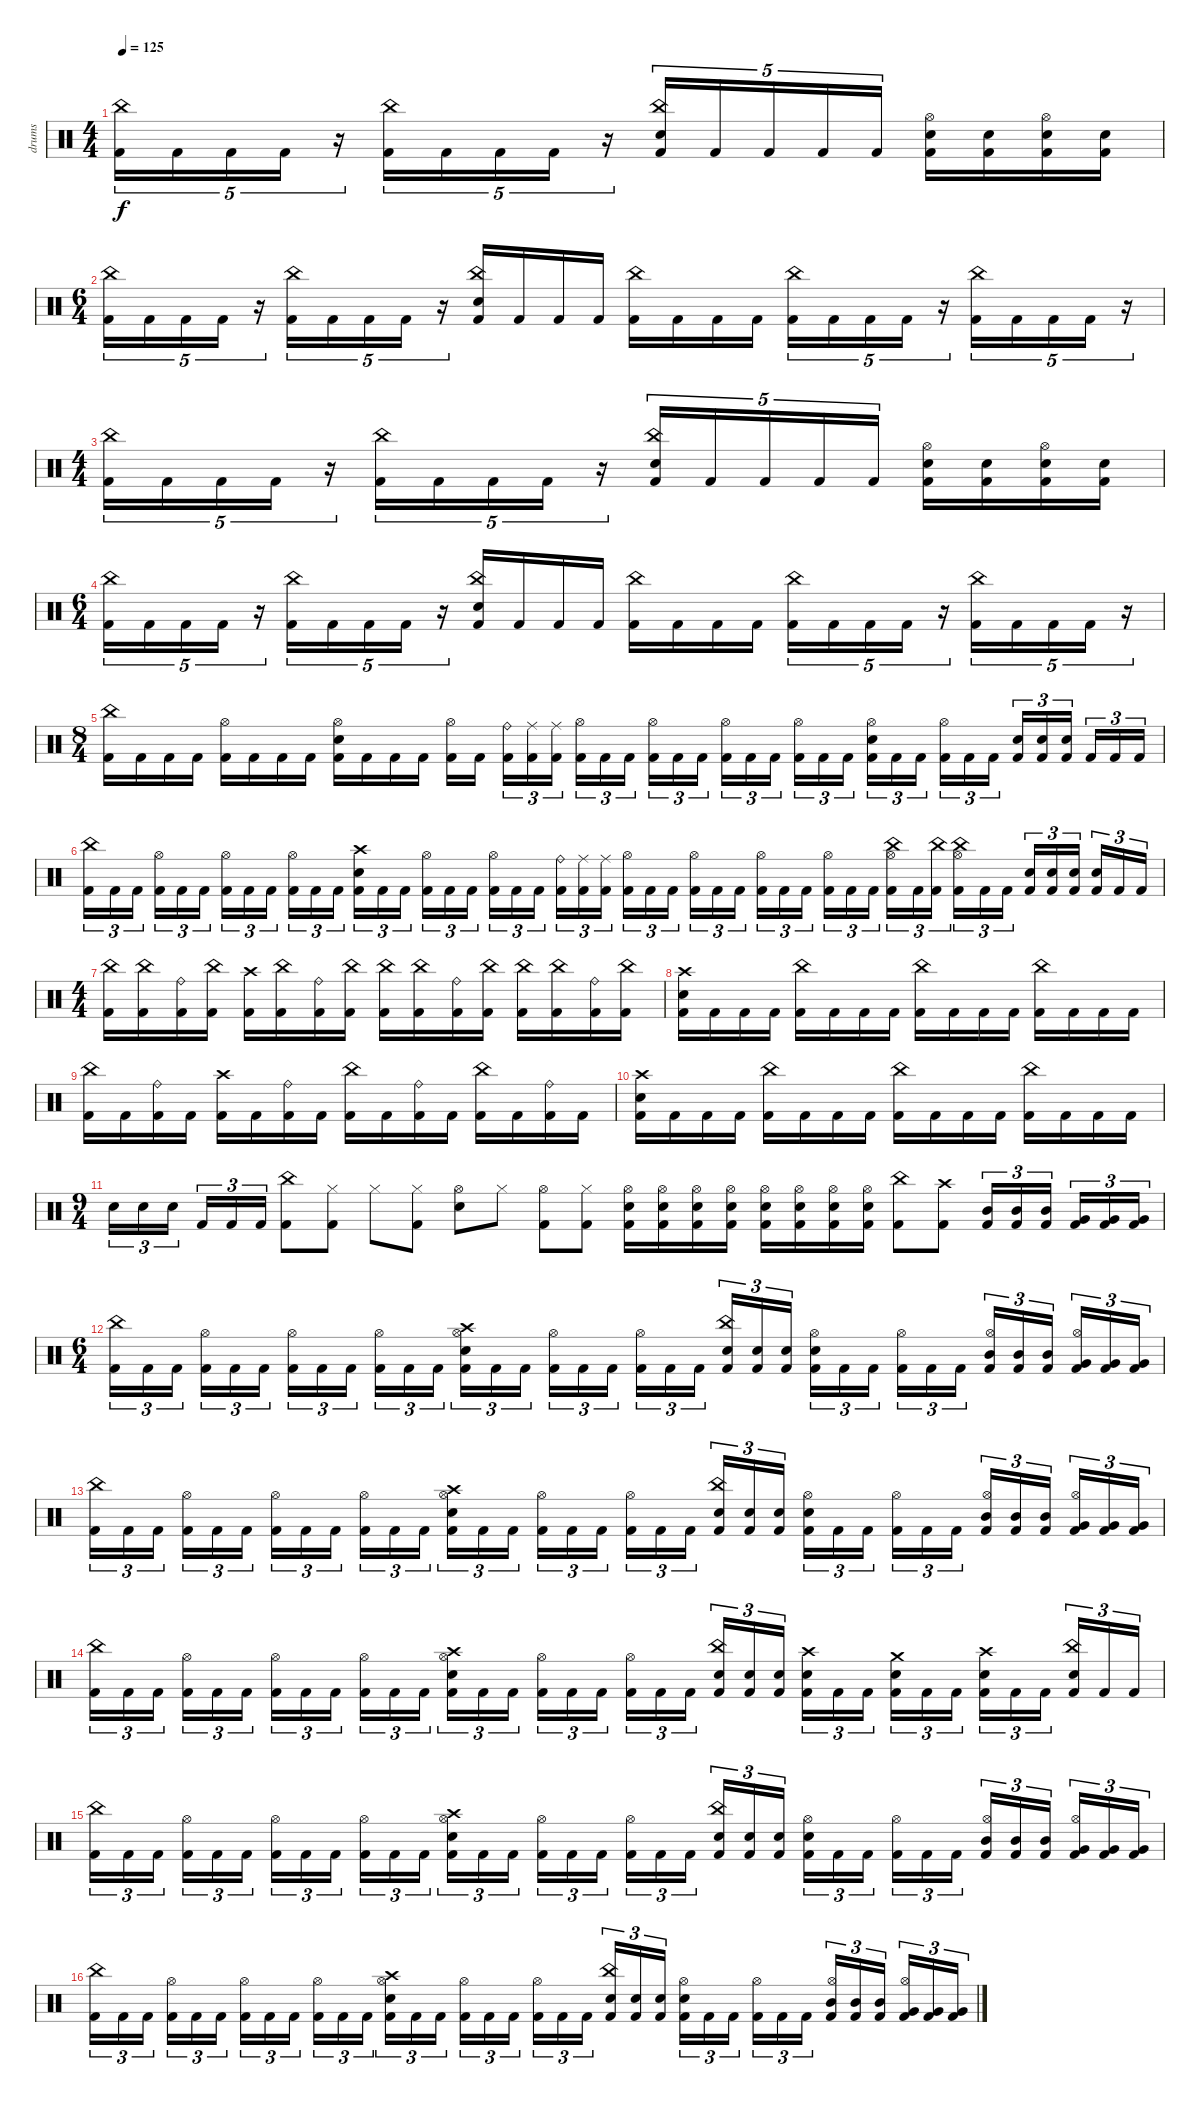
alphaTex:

\track (" drums" " drums") {mute instrument percussion}
\staff {score}
\articulation defaults
\ts (4 4)
\tempo 125
\clef neutral
\ks c
("Kick (hit) 2" "China (hit)").16{tu (5 4) dy f} "Kick (hit) 2".16{tu (5 4)} "Kick (hit) 2".16{tu (5 4)} "Kick (hit) 2".16{tu (5 4)} r.16{tu (5 4)} ("Kick (hit) 2" "China (hit)").16{tu (5 4)} "Kick (hit) 2".16{tu (5 4)} "Kick (hit) 2".16{tu (5 4)} "Kick (hit) 2".16{tu (5 4)} r.16{tu (5 4)} ("Kick (hit) 2" "China (hit)" "Electric Snare (hit)").16{tu (5 4)} "Kick (hit) 2".16{tu (5 4)} "Kick (hit) 2".16{tu (5 4)} "Kick (hit) 2".16{tu (5 4)} "Kick (hit) 2".16{tu (5 4)} ("Kick (hit) 2" "Electric Snare (hit)" "Hi-Hat (open)").16 ("Kick (hit) 2" "Electric Snare (hit)").16 ("Kick (hit) 2" "Electric Snare (hit)" "Hi-Hat (open)").16 ("Kick (hit) 2" "Electric Snare (hit)").16 |
\ts (6 4)
("Kick (hit) 2" "China (hit)").16{tu (5 4)} "Kick (hit) 2".16{tu (5 4)} "Kick (hit) 2".16{tu (5 4)} "Kick (hit) 2".16{tu (5 4)} r.16{tu (5 4)} ("Kick (hit) 2" "China (hit)").16{tu (5 4)} "Kick (hit) 2".16{tu (5 4)} "Kick (hit) 2".16{tu (5 4)} "Kick (hit) 2".16{tu (5 4)} r.16{tu (5 4)} ("Kick (hit) 2" "China (hit)" "Electric Snare (hit)").16 "Kick (hit) 2".16 "Kick (hit) 2".16 "Kick (hit) 2".16 ("Kick (hit) 2" "China (hit)").16 "Kick (hit) 2".16 "Kick (hit) 2".16 "Kick (hit) 2".16{beam splitsecondary} ("Kick (hit) 2" "China (hit)").16{tu (5 4)} "Kick (hit) 2".16{tu (5 4)} "Kick (hit) 2".16{tu (5 4)} "Kick (hit) 2".16{tu (5 4)} r.16{tu (5 4)} ("Kick (hit) 2" "China (hit)").16{tu (5 4)} "Kick (hit) 2".16{tu (5 4)} "Kick (hit) 2".16{tu (5 4)} "Kick (hit) 2".16{tu (5 4)} r.16{tu (5 4)} |
\ts (4 4)
("Kick (hit) 2" "China (hit)").16{tu (5 4)} "Kick (hit) 2".16{tu (5 4)} "Kick (hit) 2".16{tu (5 4)} "Kick (hit) 2".16{tu (5 4)} r.16{tu (5 4)} ("Kick (hit) 2" "China (hit)").16{tu (5 4)} "Kick (hit) 2".16{tu (5 4)} "Kick (hit) 2".16{tu (5 4)} "Kick (hit) 2".16{tu (5 4)} r.16{tu (5 4)} ("Kick (hit) 2" "China (hit)" "Electric Snare (hit)").16{tu (5 4)} "Kick (hit) 2".16{tu (5 4)} "Kick (hit) 2".16{tu (5 4)} "Kick (hit) 2".16{tu (5 4)} "Kick (hit) 2".16{tu (5 4)} ("Kick (hit) 2" "Electric Snare (hit)" "Hi-Hat (open)").16 ("Kick (hit) 2" "Electric Snare (hit)").16 ("Kick (hit) 2" "Electric Snare (hit)" "Hi-Hat (open)").16 ("Kick (hit) 2" "Electric Snare (hit)").16 |
\ts (6 4)
("Kick (hit) 2" "China (hit)").16{tu (5 4)} "Kick (hit) 2".16{tu (5 4)} "Kick (hit) 2".16{tu (5 4)} "Kick (hit) 2".16{tu (5 4)} r.16{tu (5 4)} ("Kick (hit) 2" "China (hit)").16{tu (5 4)} "Kick (hit) 2".16{tu (5 4)} "Kick (hit) 2".16{tu (5 4)} "Kick (hit) 2".16{tu (5 4)} r.16{tu (5 4)} ("Kick (hit) 2" "China (hit)" "Electric Snare (hit)").16 "Kick (hit) 2".16 "Kick (hit) 2".16 "Kick (hit) 2".16 ("Kick (hit) 2" "China (hit)").16 "Kick (hit) 2".16 "Kick (hit) 2".16 "Kick (hit) 2".16{beam splitsecondary} ("Kick (hit) 2" "China (hit)").16{tu (5 4)} "Kick (hit) 2".16{tu (5 4)} "Kick (hit) 2".16{tu (5 4)} "Kick (hit) 2".16{tu (5 4)} r.16{tu (5 4)} ("Kick (hit) 2" "China (hit)").16{tu (5 4)} "Kick (hit) 2".16{tu (5 4)} "Kick (hit) 2".16{tu (5 4)} "Kick (hit) 2".16{tu (5 4)} r.16{tu (5 4)} |
\ts (8 4)
("Kick (hit) 2" "China (hit)").16 "Kick (hit) 2".16 "Kick (hit) 2".16 "Kick (hit) 2".16 ("Kick (hit) 2" "Hi-Hat (open)").16 "Kick (hit) 2".16 "Kick (hit) 2".16 "Kick (hit) 2".16 ("Kick (hit) 2" "Electric Snare (hit)" "Hi-Hat (open)").16 "Kick (hit) 2".16 "Kick (hit) 2".16 "Kick (hit) 2".16 ("Kick (hit) 2" "Hi-Hat (open)").16 "Kick (hit) 2".16{beam splitsecondary} ("Kick (hit) 2" "Ride (bell)").16{tu (3 2)} ("Kick (hit) 2" "Ride (middle)").16{tu (3 2)} ("Kick (hit) 2" "Ride (middle)").16{tu (3 2)} ("Kick (hit) 2" "Hi-Hat (open)").16{tu (3 2)} "Kick (hit) 2".16{tu (3 2)} "Kick (hit) 2".16{tu (3 2) beam splitsecondary} ("Kick (hit) 2" "Hi-Hat (open)").16{tu (3 2)} "Kick (hit) 2".16{tu (3 2)} "Kick (hit) 2".16{tu (3 2)} ("Kick (hit) 2" "Hi-Hat (open)").16{tu (3 2)} "Kick (hit) 2".16{tu (3 2)} "Kick (hit) 2".16{tu (3 2) beam splitsecondary} ("Kick (hit) 2" "Hi-Hat (open)").16{tu (3 2)} "Kick (hit) 2".16{tu (3 2)} "Kick (hit) 2".16{tu (3 2)} ("Kick (hit) 2" "Hi-Hat (open)" "Electric Snare (hit)").16{tu (3 2)} "Kick (hit) 2".16{tu (3 2)} "Kick (hit) 2".16{tu (3 2) beam splitsecondary} ("Kick (hit) 2" "Hi-Hat (open)").16{tu (3 2)} "Kick (hit) 2".16{tu (3 2)} "Kick (hit) 2".16{tu (3 2)} ("Kick (hit) 2" "Electric Snare (hit)").16{tu (3 2)} ("Kick (hit) 2" "Electric Snare (hit)").16{tu (3 2)} ("Kick (hit) 2" "Electric Snare (hit)").16{tu (3 2) beam splitsecondary} "Kick (hit) 2".16{tu (3 2)} "Kick (hit) 2".16{tu (3 2)} "Kick (hit) 2".16{tu (3 2)} |
("Kick (hit) 2" "China (hit)").16{tu (3 2)} "Kick (hit) 2".16{tu (3 2)} "Kick (hit) 2".16{tu (3 2) beam splitsecondary} ("Kick (hit) 2" "Hi-Hat (open)").16{tu (3 2)} "Kick (hit) 2".16{tu (3 2)} "Kick (hit) 2".16{tu (3 2)} ("Kick (hit) 2" "Hi-Hat (open)").16{tu (3 2)} "Kick (hit) 2".16{tu (3 2)} "Kick (hit) 2".16{tu (3 2) beam splitsecondary} ("Kick (hit) 2" "Hi-Hat (open)").16{tu (3 2)} "Kick (hit) 2".16{tu (3 2)} "Kick (hit) 2".16{tu (3 2)} ("Kick (hit) 2" "Crash high (hit)" "Electric Snare (hit)").16{tu (3 2)} "Kick (hit) 2".16{tu (3 2)} "Kick (hit) 2".16{tu (3 2) beam splitsecondary} ("Kick (hit) 2" "Hi-Hat (open)").16{tu (3 2)} "Kick (hit) 2".16{tu (3 2)} "Kick (hit) 2".16{tu (3 2)} ("Kick (hit) 2" "Hi-Hat (open)").16{tu (3 2)} "Kick (hit) 2".16{tu (3 2)} "Kick (hit) 2".16{tu (3 2) beam splitsecondary} ("Kick (hit) 2" "Ride (bell)").16{tu (3 2)} ("Kick (hit) 2" "Ride (middle)").16{tu (3 2)} ("Kick (hit) 2" "Ride (middle)").16{tu (3 2)} ("Kick (hit) 2" "Hi-Hat (open)").16{tu (3 2)} "Kick (hit) 2".16{tu (3 2)} "Kick (hit) 2".16{tu (3 2) beam splitsecondary} ("Kick (hit) 2" "Hi-Hat (open)").16{tu (3 2)} "Kick (hit) 2".16{tu (3 2)} "Kick (hit) 2".16{tu (3 2)} ("Kick (hit) 2" "Hi-Hat (open)").16{tu (3 2)} "Kick (hit) 2".16{tu (3 2)} "Kick (hit) 2".16{tu (3 2) beam splitsecondary} ("Kick (hit) 2" "Hi-Hat (open)").16{tu (3 2)} "Kick (hit) 2".16{tu (3 2)} "Kick (hit) 2".16{tu (3 2)} ("Kick (hit) 2" "Hi-Hat (open)" "China (hit)").16{tu (3 2)} "Kick (hit) 2".16{tu (3 2)} ("Kick (hit) 2" "China (hit)").16{tu (3 2) beam splitsecondary} ("Kick (hit) 2" "Hi-Hat (open)" "China (hit)").16{tu (3 2)} "Kick (hit) 2".16{tu (3 2)} "Kick (hit) 2".16{tu (3 2)} ("Kick (hit) 2" "Electric Snare (hit)").16{tu (3 2)} ("Kick (hit) 2" "Electric Snare (hit)").16{tu (3 2)} ("Kick (hit) 2" "Electric Snare (hit)").16{tu (3 2) beam splitsecondary} ("Kick (hit) 2" "Electric Snare (hit)").16{tu (3 2)} "Kick (hit) 2".16{tu (3 2)} "Kick (hit) 2".16{tu (3 2)} |
\ts (4 4)
("Kick (hit) 2" "China (hit)").16 ("Kick (hit) 2" "China (hit)").16 ("Kick (hit) 2" "Ride (bell)").16 ("Kick (hit) 2" "China (hit)").16 ("Kick (hit) 2" "Crash high (hit)").16 ("Kick (hit) 2" "China (hit)").16 ("Kick (hit) 2" "Ride (bell)").16 ("Kick (hit) 2" "China (hit)").16 ("Kick (hit) 2" "China (hit)").16 ("Kick (hit) 2" "China (hit)").16 ("Kick (hit) 2" "Ride (bell)").16 ("Kick (hit) 2" "China (hit)").16 ("Kick (hit) 2" "China (hit)").16 ("Kick (hit) 2" "China (hit)").16 ("Kick (hit) 2" "Ride (bell)").16 ("Kick (hit) 2" "China (hit)").16 |
("Kick (hit) 2" "Electric Snare (hit)" "Crash high (hit)").16 "Kick (hit) 2".16 "Kick (hit) 2".16 "Kick (hit) 2".16 ("Kick (hit) 2" "China (hit)").16 "Kick (hit) 2".16 "Kick (hit) 2".16 "Kick (hit) 2".16 ("Kick (hit) 2" "China (hit)").16 "Kick (hit) 2".16 "Kick (hit) 2".16 "Kick (hit) 2".16 ("Kick (hit) 2" "China (hit)").16 "Kick (hit) 2".16 "Kick (hit) 2".16 "Kick (hit) 2".16 |
("Kick (hit) 2" "China (hit)").16 "Kick (hit) 2".16 ("Kick (hit) 2" "Ride (bell)").16 "Kick (hit) 2".16 ("Kick (hit) 2" "Crash high (hit)").16 "Kick (hit) 2".16 ("Kick (hit) 2" "Ride (bell)").16 "Kick (hit) 2".16 ("Kick (hit) 2" "China (hit)").16 "Kick (hit) 2".16 ("Kick (hit) 2" "Ride (bell)").16 "Kick (hit) 2".16 ("Kick (hit) 2" "China (hit)").16 "Kick (hit) 2".16 ("Kick (hit) 2" "Ride (bell)").16 "Kick (hit) 2".16 |
("Kick (hit) 2" "Electric Snare (hit)" "Crash high (hit)").16 "Kick (hit) 2".16 "Kick (hit) 2".16 "Kick (hit) 2".16 ("Kick (hit) 2" "China (hit)").16 "Kick (hit) 2".16 "Kick (hit) 2".16 "Kick (hit) 2".16 ("Kick (hit) 2" "China (hit)").16 "Kick (hit) 2".16 "Kick (hit) 2".16 "Kick (hit) 2".16 ("Kick (hit) 2" "China (hit)").16 "Kick (hit) 2".16 "Kick (hit) 2".16 "Kick (hit) 2".16 |
\ts (9 4)
"Electric Snare (hit)".16{tu (3 2)} "Electric Snare (hit)".16{tu (3 2)} "Electric Snare (hit)".16{tu (3 2) beam splitsecondary} "Kick (hit) 2".16{tu (3 2)} "Kick (hit) 2".16{tu (3 2)} "Kick (hit) 2".16{tu (3 2)} ("Kick (hit) 2" "China (hit)").8 ("Hi-Hat (closed)" "Kick (hit) 2").8 "Hi-Hat (closed)".8 ("Hi-Hat (closed)" "Kick (hit) 2").8 ("Hi-Hat (open)" "Electric Snare (hit)").8 "Hi-Hat (closed)".8 ("Hi-Hat (open)" "Kick (hit) 2").8 ("Hi-Hat (closed)" "Kick (hit) 2").8 ("Electric Snare (hit)" "Hi-Hat (open)" "Kick (hit) 2").16 ("Electric Snare (hit)" "Hi-Hat (open)" "Kick (hit) 2").16 ("Electric Snare (hit)" "Hi-Hat (open)" "Kick (hit) 2").16 ("Electric Snare (hit)" "Hi-Hat (open)" "Kick (hit) 2").16 ("Electric Snare (hit)" "Hi-Hat (open)" "Kick (hit) 2").16 ("Electric Snare (hit)" "Hi-Hat (open)" "Kick (hit) 2").16 ("Electric Snare (hit)" "Hi-Hat (open)" "Kick (hit) 2").16 ("Electric Snare (hit)" "Hi-Hat (open)" "Kick (hit) 2").16 ("China (hit)" "Kick (hit) 2").8 ("Crash high (hit)" "Kick (hit) 2").8 ("Mid Tom (hit)" "Kick (hit) 2").16{tu (3 2)} ("Mid Tom (hit)" "Kick (hit) 2").16{tu (3 2)} ("Mid Tom (hit)" "Kick (hit) 2").16{tu (3 2) beam splitsecondary} ("Very Low Tom (hit)" "Kick (hit) 2").16{tu (3 2)} ("Very Low Tom (hit)" "Kick (hit) 2").16{tu (3 2)} ("Very Low Tom (hit)" "Kick (hit) 2").16{tu (3 2)} |
\ts (6 4)
("Kick (hit) 2" "China (hit)").16{tu (3 2)} "Kick (hit) 2".16{tu (3 2)} "Kick (hit) 2".16{tu (3 2) beam splitsecondary} ("Kick (hit) 2" "Hi-Hat (open)").16{tu (3 2)} "Kick (hit) 2".16{tu (3 2)} "Kick (hit) 2".16{tu (3 2) beam splitsecondary} ("Kick (hit) 2" "Hi-Hat (open)").16{tu (3 2)} "Kick (hit) 2".16{tu (3 2)} "Kick (hit) 2".16{tu (3 2) beam splitsecondary} ("Kick (hit) 2" "Hi-Hat (open)").16{tu (3 2)} "Kick (hit) 2".16{tu (3 2)} "Kick (hit) 2".16{tu (3 2) beam splitsecondary} ("Kick (hit) 2" "Electric Snare (hit)" "Hi-Hat (open)" "Crash high (hit)").16{tu (3 2)} "Kick (hit) 2".16{tu (3 2)} "Kick (hit) 2".16{tu (3 2) beam splitsecondary} ("Kick (hit) 2" "Hi-Hat (open)").16{tu (3 2)} "Kick (hit) 2".16{tu (3 2)} "Kick (hit) 2".16{tu (3 2)} ("Kick (hit) 2" "Hi-Hat (open)").16{tu (3 2)} "Kick (hit) 2".16{tu (3 2)} "Kick (hit) 2".16{tu (3 2) beam splitsecondary} ("Kick (hit) 2" "Electric Snare (hit)" "China (hit)").16{tu (3 2)} ("Kick (hit) 2" "Electric Snare (hit)").16{tu (3 2)} ("Kick (hit) 2" "Electric Snare (hit)").16{tu (3 2) beam splitsecondary} ("Kick (hit) 2" "Electric Snare (hit)" "Hi-Hat (open)").16{tu (3 2)} "Kick (hit) 2".16{tu (3 2)} "Kick (hit) 2".16{tu (3 2) beam splitsecondary} ("Kick (hit) 2" "Hi-Hat (open)").16{tu (3 2)} "Kick (hit) 2".16{tu (3 2)} "Kick (hit) 2".16{tu (3 2) beam splitsecondary} ("Kick (hit) 2" "Mid Tom (hit)" "Hi-Hat (open)").16{tu (3 2)} ("Kick (hit) 2" "Mid Tom (hit)").16{tu (3 2)} ("Kick (hit) 2" "Mid Tom (hit)").16{tu (3 2) beam splitsecondary} ("Kick (hit) 2" "Very Low Tom (hit)" "Hi-Hat (open)").16{tu (3 2)} ("Kick (hit) 2" "Very Low Tom (hit)").16{tu (3 2)} ("Kick (hit) 2" "Very Low Tom (hit)").16{tu (3 2)} |
("Kick (hit) 2" "China (hit)").16{tu (3 2)} "Kick (hit) 2".16{tu (3 2)} "Kick (hit) 2".16{tu (3 2) beam splitsecondary} ("Kick (hit) 2" "Hi-Hat (open)").16{tu (3 2)} "Kick (hit) 2".16{tu (3 2)} "Kick (hit) 2".16{tu (3 2) beam splitsecondary} ("Kick (hit) 2" "Hi-Hat (open)").16{tu (3 2)} "Kick (hit) 2".16{tu (3 2)} "Kick (hit) 2".16{tu (3 2) beam splitsecondary} ("Kick (hit) 2" "Hi-Hat (open)").16{tu (3 2)} "Kick (hit) 2".16{tu (3 2)} "Kick (hit) 2".16{tu (3 2) beam splitsecondary} ("Kick (hit) 2" "Electric Snare (hit)" "Hi-Hat (open)" "Crash high (hit)").16{tu (3 2)} "Kick (hit) 2".16{tu (3 2)} "Kick (hit) 2".16{tu (3 2) beam splitsecondary} ("Kick (hit) 2" "Hi-Hat (open)").16{tu (3 2)} "Kick (hit) 2".16{tu (3 2)} "Kick (hit) 2".16{tu (3 2)} ("Kick (hit) 2" "Hi-Hat (open)").16{tu (3 2)} "Kick (hit) 2".16{tu (3 2)} "Kick (hit) 2".16{tu (3 2) beam splitsecondary} ("Kick (hit) 2" "Electric Snare (hit)" "China (hit)").16{tu (3 2)} ("Kick (hit) 2" "Electric Snare (hit)").16{tu (3 2)} ("Kick (hit) 2" "Electric Snare (hit)").16{tu (3 2) beam splitsecondary} ("Kick (hit) 2" "Electric Snare (hit)" "Hi-Hat (open)").16{tu (3 2)} "Kick (hit) 2".16{tu (3 2)} "Kick (hit) 2".16{tu (3 2) beam splitsecondary} ("Kick (hit) 2" "Hi-Hat (open)").16{tu (3 2)} "Kick (hit) 2".16{tu (3 2)} "Kick (hit) 2".16{tu (3 2) beam splitsecondary} ("Kick (hit) 2" "Mid Tom (hit)" "Hi-Hat (open)").16{tu (3 2)} ("Kick (hit) 2" "Mid Tom (hit)").16{tu (3 2)} ("Kick (hit) 2" "Mid Tom (hit)").16{tu (3 2) beam splitsecondary} ("Kick (hit) 2" "Very Low Tom (hit)" "Hi-Hat (open)").16{tu (3 2)} ("Kick (hit) 2" "Very Low Tom (hit)").16{tu (3 2)} ("Kick (hit) 2" "Very Low Tom (hit)").16{tu (3 2)} |
("Kick (hit) 2" "China (hit)").16{tu (3 2)} "Kick (hit) 2".16{tu (3 2)} "Kick (hit) 2".16{tu (3 2) beam splitsecondary} ("Kick (hit) 2" "Hi-Hat (open)").16{tu (3 2)} "Kick (hit) 2".16{tu (3 2)} "Kick (hit) 2".16{tu (3 2) beam splitsecondary} ("Kick (hit) 2" "Hi-Hat (open)").16{tu (3 2)} "Kick (hit) 2".16{tu (3 2)} "Kick (hit) 2".16{tu (3 2) beam splitsecondary} ("Kick (hit) 2" "Hi-Hat (open)").16{tu (3 2)} "Kick (hit) 2".16{tu (3 2)} "Kick (hit) 2".16{tu (3 2) beam splitsecondary} ("Kick (hit) 2" "Electric Snare (hit)" "Hi-Hat (open)" "Crash high (hit)").16{tu (3 2)} "Kick (hit) 2".16{tu (3 2)} "Kick (hit) 2".16{tu (3 2) beam splitsecondary} ("Kick (hit) 2" "Hi-Hat (open)").16{tu (3 2)} "Kick (hit) 2".16{tu (3 2)} "Kick (hit) 2".16{tu (3 2)} ("Kick (hit) 2" "Hi-Hat (open)").16{tu (3 2)} "Kick (hit) 2".16{tu (3 2)} "Kick (hit) 2".16{tu (3 2) beam splitsecondary} ("Kick (hit) 2" "Electric Snare (hit)" "China (hit)").16{tu (3 2)} ("Kick (hit) 2" "Electric Snare (hit)").16{tu (3 2)} ("Kick (hit) 2" "Electric Snare (hit)").16{tu (3 2) beam splitsecondary} ("Kick (hit) 2" "Electric Snare (hit)" "Crash high (hit)").16{tu (3 2)} "Kick (hit) 2".16{tu (3 2)} "Kick (hit) 2".16{tu (3 2) beam splitsecondary} ("Kick (hit) 2" "Electric Snare (hit)" "Crash medium (hit)").16{tu (3 2)} "Kick (hit) 2".16{tu (3 2)} "Kick (hit) 2".16{tu (3 2) beam splitsecondary} ("Kick (hit) 2" "Electric Snare (hit)" "Crash high (hit)").16{tu (3 2)} "Kick (hit) 2".16{tu (3 2)} "Kick (hit) 2".16{tu (3 2) beam splitsecondary} ("Kick (hit) 2" "Electric Snare (hit)" "China (hit)").16{tu (3 2)} "Kick (hit) 2".16{tu (3 2)} "Kick (hit) 2".16{tu (3 2)} |
("Kick (hit) 2" "China (hit)").16{tu (3 2)} "Kick (hit) 2".16{tu (3 2)} "Kick (hit) 2".16{tu (3 2) beam splitsecondary} ("Kick (hit) 2" "Hi-Hat (open)").16{tu (3 2)} "Kick (hit) 2".16{tu (3 2)} "Kick (hit) 2".16{tu (3 2) beam splitsecondary} ("Kick (hit) 2" "Hi-Hat (open)").16{tu (3 2)} "Kick (hit) 2".16{tu (3 2)} "Kick (hit) 2".16{tu (3 2) beam splitsecondary} ("Kick (hit) 2" "Hi-Hat (open)").16{tu (3 2)} "Kick (hit) 2".16{tu (3 2)} "Kick (hit) 2".16{tu (3 2) beam splitsecondary} ("Kick (hit) 2" "Electric Snare (hit)" "Hi-Hat (open)" "Crash high (hit)").16{tu (3 2)} "Kick (hit) 2".16{tu (3 2)} "Kick (hit) 2".16{tu (3 2) beam splitsecondary} ("Kick (hit) 2" "Hi-Hat (open)").16{tu (3 2)} "Kick (hit) 2".16{tu (3 2)} "Kick (hit) 2".16{tu (3 2)} ("Kick (hit) 2" "Hi-Hat (open)").16{tu (3 2)} "Kick (hit) 2".16{tu (3 2)} "Kick (hit) 2".16{tu (3 2) beam splitsecondary} ("Kick (hit) 2" "Electric Snare (hit)" "China (hit)").16{tu (3 2)} ("Kick (hit) 2" "Electric Snare (hit)").16{tu (3 2)} ("Kick (hit) 2" "Electric Snare (hit)").16{tu (3 2) beam splitsecondary} ("Kick (hit) 2" "Electric Snare (hit)" "Hi-Hat (open)").16{tu (3 2)} "Kick (hit) 2".16{tu (3 2)} "Kick (hit) 2".16{tu (3 2) beam splitsecondary} ("Kick (hit) 2" "Hi-Hat (open)").16{tu (3 2)} "Kick (hit) 2".16{tu (3 2)} "Kick (hit) 2".16{tu (3 2) beam splitsecondary} ("Kick (hit) 2" "Mid Tom (hit)" "Hi-Hat (open)").16{tu (3 2)} ("Kick (hit) 2" "Mid Tom (hit)").16{tu (3 2)} ("Kick (hit) 2" "Mid Tom (hit)").16{tu (3 2) beam splitsecondary} ("Kick (hit) 2" "Very Low Tom (hit)" "Hi-Hat (open)").16{tu (3 2)} ("Kick (hit) 2" "Very Low Tom (hit)").16{tu (3 2)} ("Kick (hit) 2" "Very Low Tom (hit)").16{tu (3 2)} |
("Kick (hit) 2" "China (hit)").16{tu (3 2)} "Kick (hit) 2".16{tu (3 2)} "Kick (hit) 2".16{tu (3 2) beam splitsecondary} ("Kick (hit) 2" "Hi-Hat (open)").16{tu (3 2)} "Kick (hit) 2".16{tu (3 2)} "Kick (hit) 2".16{tu (3 2) beam splitsecondary} ("Kick (hit) 2" "Hi-Hat (open)").16{tu (3 2)} "Kick (hit) 2".16{tu (3 2)} "Kick (hit) 2".16{tu (3 2) beam splitsecondary} ("Kick (hit) 2" "Hi-Hat (open)").16{tu (3 2)} "Kick (hit) 2".16{tu (3 2)} "Kick (hit) 2".16{tu (3 2) beam splitsecondary} ("Kick (hit) 2" "Electric Snare (hit)" "Hi-Hat (open)" "Crash high (hit)").16{tu (3 2)} "Kick (hit) 2".16{tu (3 2)} "Kick (hit) 2".16{tu (3 2) beam splitsecondary} ("Kick (hit) 2" "Hi-Hat (open)").16{tu (3 2)} "Kick (hit) 2".16{tu (3 2)} "Kick (hit) 2".16{tu (3 2)} ("Kick (hit) 2" "Hi-Hat (open)").16{tu (3 2)} "Kick (hit) 2".16{tu (3 2)} "Kick (hit) 2".16{tu (3 2) beam splitsecondary} ("Kick (hit) 2" "Electric Snare (hit)" "China (hit)").16{tu (3 2)} ("Kick (hit) 2" "Electric Snare (hit)").16{tu (3 2)} ("Kick (hit) 2" "Electric Snare (hit)").16{tu (3 2) beam splitsecondary} ("Kick (hit) 2" "Electric Snare (hit)" "Hi-Hat (open)").16{tu (3 2)} "Kick (hit) 2".16{tu (3 2)} "Kick (hit) 2".16{tu (3 2) beam splitsecondary} ("Kick (hit) 2" "Hi-Hat (open)").16{tu (3 2)} "Kick (hit) 2".16{tu (3 2)} "Kick (hit) 2".16{tu (3 2) beam splitsecondary} ("Kick (hit) 2" "Mid Tom (hit)" "Hi-Hat (open)").16{tu (3 2)} ("Kick (hit) 2" "Mid Tom (hit)").16{tu (3 2)} ("Kick (hit) 2" "Mid Tom (hit)").16{tu (3 2) beam splitsecondary} ("Kick (hit) 2" "Very Low Tom (hit)" "Hi-Hat (open)").16{tu (3 2)} ("Kick (hit) 2" "Very Low Tom (hit)").16{tu (3 2)} ("Kick (hit) 2" "Very Low Tom (hit)").16{tu (3 2)}
